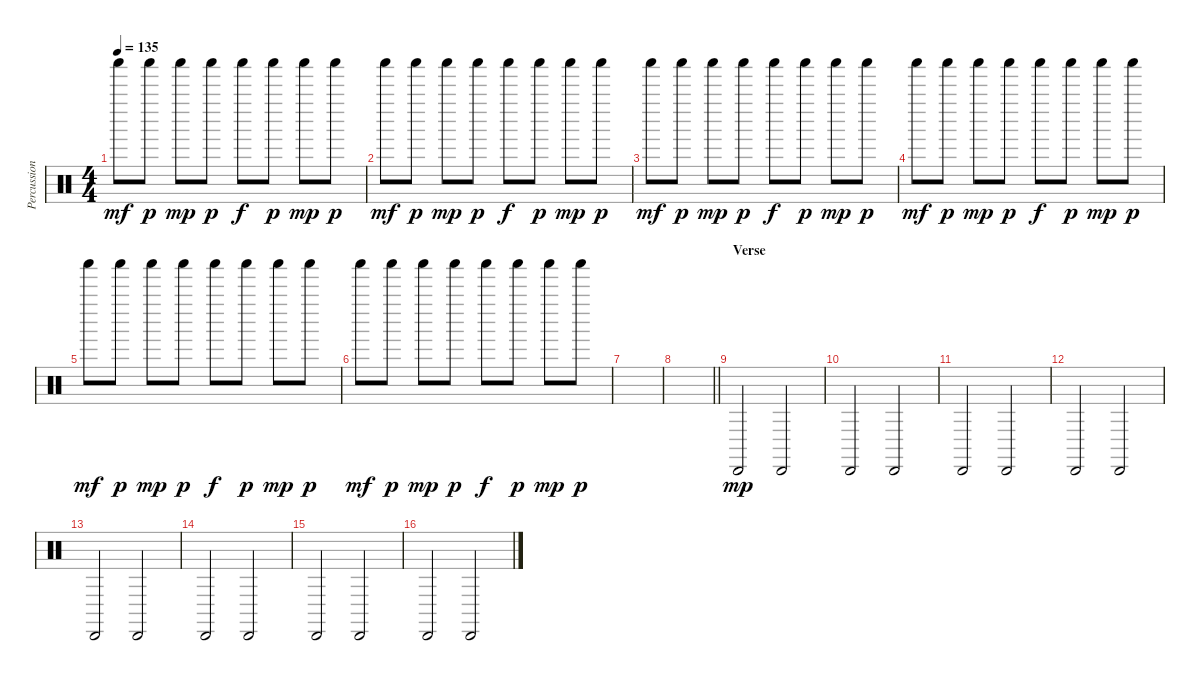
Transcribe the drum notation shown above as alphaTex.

\track ("Percussion" "Percussion") {instrument percussion}
\staff {score}
\articulation defaults
\ts (4 4)
\tempo 135
\clef neutral
\ks c "Shaker (hit)".8{dy mf} "Shaker (hit)".8{dy p} "Shaker (hit)".8{dy mp} "Shaker (hit)".8{dy p} "Shaker (hit)".8{dy f} "Shaker (hit)".8{dy p} "Shaker (hit)".8{dy mp} "Shaker (hit)".8{dy p}
|
"Shaker (hit)".8{dy mf} "Shaker (hit)".8{dy p} "Shaker (hit)".8{dy mp} "Shaker (hit)".8{dy p} "Shaker (hit)".8{dy f} "Shaker (hit)".8{dy p} "Shaker (hit)".8{dy mp} "Shaker (hit)".8{dy p} |
"Shaker (hit)".8{dy mf} "Shaker (hit)".8{dy p} "Shaker (hit)".8{dy mp} "Shaker (hit)".8{dy p} "Shaker (hit)".8{dy f} "Shaker (hit)".8{dy p} "Shaker (hit)".8{dy mp} "Shaker (hit)".8{dy p} |
"Shaker (hit)".8{dy mf} "Shaker (hit)".8{dy p} "Shaker (hit)".8{dy mp} "Shaker (hit)".8{dy p} "Shaker (hit)".8{dy f} "Shaker (hit)".8{dy p} "Shaker (hit)".8{dy mp} "Shaker (hit)".8{dy p} |
"Shaker (hit)".8{dy mf} "Shaker (hit)".8{dy p} "Shaker (hit)".8{dy mp} "Shaker (hit)".8{dy p} "Shaker (hit)".8{dy f} "Shaker (hit)".8{dy p} "Shaker (hit)".8{dy mp} "Shaker (hit)".8{dy p} |
"Shaker (hit)".8{dy mf} "Shaker (hit)".8{dy p} "Shaker (hit)".8{dy mp} "Shaker (hit)".8{dy p} "Shaker (hit)".8{dy f} "Shaker (hit)".8{dy p} "Shaker (hit)".8{dy mp} "Shaker (hit)".8{dy p} |
|
\barLineRight lightlight
|
\section ("" "Verse")
"Cabasa (hit)".2{dy mp} "Cabasa (hit)".2 |
"Cabasa (hit)".2 "Cabasa (hit)".2 |
"Cabasa (hit)".2 "Cabasa (hit)".2 |
"Cabasa (hit)".2 "Cabasa (hit)".2 |
"Cabasa (hit)".2 "Cabasa (hit)".2 |
"Cabasa (hit)".2 "Cabasa (hit)".2 |
"Cabasa (hit)".2 "Cabasa (hit)".2 |
"Cabasa (hit)".2 "Cabasa (hit)".2
